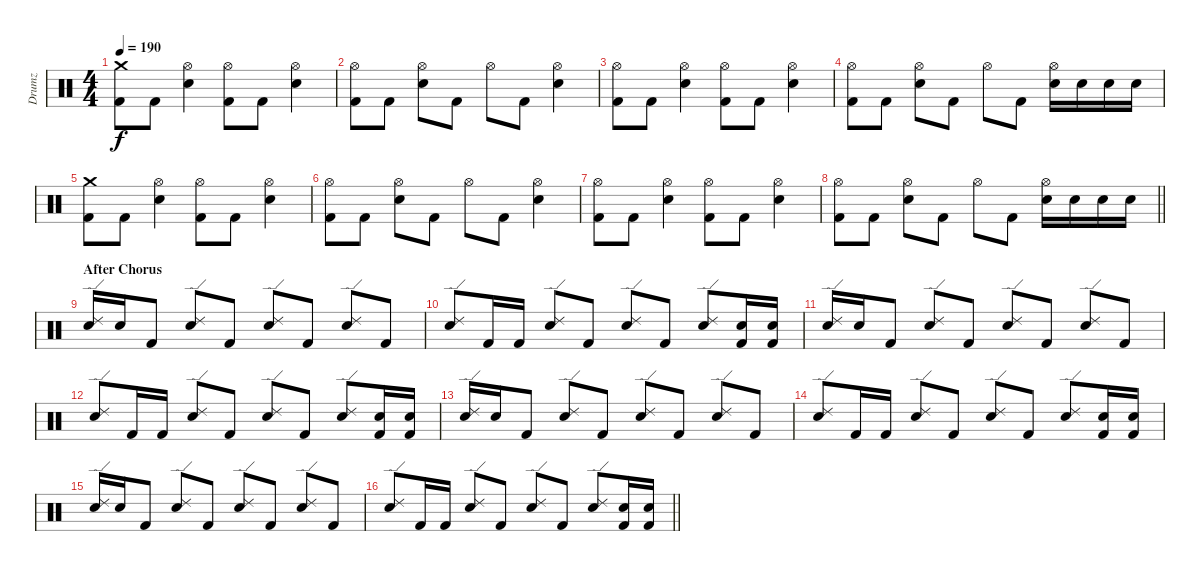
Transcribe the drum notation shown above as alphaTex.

\track ("Drumz" "Drumz") {instrument percussion}
\staff {score}
\articulation defaults
\ts (4 4)
\tempo 190
\clef neutral
\ks c
("Crash medium (hit)" "Kick (hit) 2").8{dy f} "Kick (hit) 2".8 ("Snare (hit) 2" "Hi-Hat (open)").4 ("Hi-Hat (open)" "Kick (hit) 2").8 "Kick (hit) 2".8 ("Snare (hit) 2" "Hi-Hat (open)").4 |
("Hi-Hat (open)" "Kick (hit) 2").8 "Kick (hit) 2".8 ("Snare (hit) 2" "Hi-Hat (open)").8 "Kick (hit) 2".8 "Hi-Hat (open)".8 "Kick (hit) 2".8 ("Snare (hit) 2" "Hi-Hat (open)").4 |
("Hi-Hat (open)" "Kick (hit) 2").8 "Kick (hit) 2".8 ("Snare (hit) 2" "Hi-Hat (open)").4 ("Hi-Hat (open)" "Kick (hit) 2").8 "Kick (hit) 2".8 ("Snare (hit) 2" "Hi-Hat (open)").4 |
("Hi-Hat (open)" "Kick (hit) 2").8 "Kick (hit) 2".8 ("Snare (hit) 2" "Hi-Hat (open)").8 "Kick (hit) 2".8 "Hi-Hat (open)".8 "Kick (hit) 2".8 ("Snare (hit) 2" "Hi-Hat (open)").16 "Snare (hit) 2".16 "Snare (hit) 2".16 "Snare (hit) 2".16 |
("Crash medium (hit)" "Kick (hit) 2").8 "Kick (hit) 2".8 ("Snare (hit) 2" "Hi-Hat (open)").4 ("Hi-Hat (open)" "Kick (hit) 2").8 "Kick (hit) 2".8 ("Snare (hit) 2" "Hi-Hat (open)").4 |
("Hi-Hat (open)" "Kick (hit) 2").8 "Kick (hit) 2".8 ("Snare (hit) 2" "Hi-Hat (open)").8 "Kick (hit) 2".8 "Hi-Hat (open)".8 "Kick (hit) 2".8 ("Snare (hit) 2" "Hi-Hat (open)").4 |
("Hi-Hat (open)" "Kick (hit) 2").8 "Kick (hit) 2".8 ("Snare (hit) 2" "Hi-Hat (open)").4 ("Hi-Hat (open)" "Kick (hit) 2").8 "Kick (hit) 2".8 ("Snare (hit) 2" "Hi-Hat (open)").4 |
\barLineRight lightlight
("Hi-Hat (open)" "Kick (hit) 2").8 "Kick (hit) 2".8 ("Snare (hit) 2" "Hi-Hat (open)").8 "Kick (hit) 2".8 "Hi-Hat (open)".8 "Kick (hit) 2".8 ("Snare (hit) 2" "Hi-Hat (open)").16 "Snare (hit) 2".16 "Snare (hit) 2".16 "Snare (hit) 2".16 |
\section ("" "After Chorus")
("Ride (edge) 2" "Snare (hit) 2").16 "Snare (hit) 2".16 "Kick (hit) 2".8 ("Ride (edge) 2" "Snare (hit) 2").8 "Kick (hit) 2".8 ("Ride (edge) 2" "Snare (hit) 2").8 "Kick (hit) 2".8 ("Ride (edge) 2" "Snare (hit) 2").8 "Kick (hit) 2".8 |
("Ride (edge) 2" "Snare (hit) 2").8 "Kick (hit) 2".16 "Kick (hit) 2".16 ("Ride (edge) 2" "Snare (hit) 2").8 "Kick (hit) 2".8 ("Ride (edge) 2" "Snare (hit) 2").8 "Kick (hit) 2".8 ("Ride (edge) 2" "Snare (hit) 2").8 ("Snare (hit) 2" "Kick (hit) 2").16 ("Snare (hit) 2" "Kick (hit) 2").16 |
("Ride (edge) 2" "Snare (hit) 2").16 "Snare (hit) 2".16 "Kick (hit) 2".8 ("Ride (edge) 2" "Snare (hit) 2").8 "Kick (hit) 2".8 ("Ride (edge) 2" "Snare (hit) 2").8 "Kick (hit) 2".8 ("Ride (edge) 2" "Snare (hit) 2").8 "Kick (hit) 2".8 |
("Ride (edge) 2" "Snare (hit) 2").8 "Kick (hit) 2".16 "Kick (hit) 2".16 ("Ride (edge) 2" "Snare (hit) 2").8 "Kick (hit) 2".8 ("Ride (edge) 2" "Snare (hit) 2").8 "Kick (hit) 2".8 ("Ride (edge) 2" "Snare (hit) 2").8 ("Snare (hit) 2" "Kick (hit) 2").16 ("Snare (hit) 2" "Kick (hit) 2").16 |
("Ride (edge) 2" "Snare (hit) 2").16 "Snare (hit) 2".16 "Kick (hit) 2".8 ("Ride (edge) 2" "Snare (hit) 2").8 "Kick (hit) 2".8 ("Ride (edge) 2" "Snare (hit) 2").8 "Kick (hit) 2".8 ("Ride (edge) 2" "Snare (hit) 2").8 "Kick (hit) 2".8 |
("Ride (edge) 2" "Snare (hit) 2").8 "Kick (hit) 2".16 "Kick (hit) 2".16 ("Ride (edge) 2" "Snare (hit) 2").8 "Kick (hit) 2".8 ("Ride (edge) 2" "Snare (hit) 2").8 "Kick (hit) 2".8 ("Ride (edge) 2" "Snare (hit) 2").8 ("Snare (hit) 2" "Kick (hit) 2").16 ("Snare (hit) 2" "Kick (hit) 2").16 |
("Ride (edge) 2" "Snare (hit) 2").16 "Snare (hit) 2".16 "Kick (hit) 2".8 ("Ride (edge) 2" "Snare (hit) 2").8 "Kick (hit) 2".8 ("Ride (edge) 2" "Snare (hit) 2").8 "Kick (hit) 2".8 ("Ride (edge) 2" "Snare (hit) 2").8 "Kick (hit) 2".8 |
\barLineRight lightlight
("Ride (edge) 2" "Snare (hit) 2").8 "Kick (hit) 2".16 "Kick (hit) 2".16 ("Ride (edge) 2" "Snare (hit) 2").8 "Kick (hit) 2".8 ("Ride (edge) 2" "Snare (hit) 2").8 "Kick (hit) 2".8 ("Ride (edge) 2" "Snare (hit) 2").8 ("Snare (hit) 2" "Kick (hit) 2").16 ("Snare (hit) 2" "Kick (hit) 2").16
